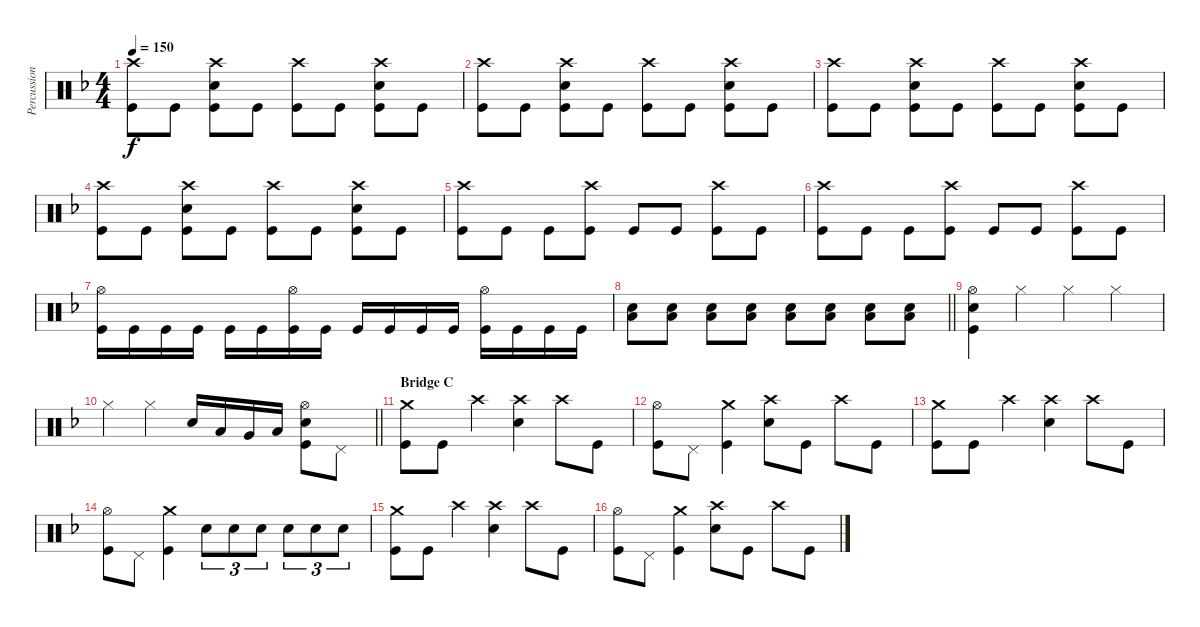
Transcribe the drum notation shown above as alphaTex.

\track ("Percussion" "Percussion") {instrument percussion}
\staff {score}
\articulation defaults
\ts (4 4)
\tempo 150
\clef neutral
\ks f
("Crash high (hit)" "Kick (hit)").8{dy f} "Kick (hit)".8 ("Crash high (hit)" "Electric Snare (hit)" "Kick (hit)").8 "Kick (hit)".8 ("Crash high (hit)" "Kick (hit)").8 "Kick (hit)".8 ("Crash high (hit)" "Electric Snare (hit)" "Kick (hit)").8 "Kick (hit)".8 |
("Crash high (hit)" "Kick (hit)").8 "Kick (hit)".8 ("Crash high (hit)" "Electric Snare (hit)" "Kick (hit)").8 "Kick (hit)".8 ("Crash high (hit)" "Kick (hit)").8 "Kick (hit)".8 ("Crash high (hit)" "Electric Snare (hit)" "Kick (hit)").8 "Kick (hit)".8 |
("Crash high (hit)" "Kick (hit)").8 "Kick (hit)".8 ("Crash high (hit)" "Electric Snare (hit)" "Kick (hit)").8 "Kick (hit)".8 ("Crash high (hit)" "Kick (hit)").8 "Kick (hit)".8 ("Crash high (hit)" "Electric Snare (hit)" "Kick (hit)").8 "Kick (hit)".8 |
("Crash high (hit)" "Kick (hit)").8 "Kick (hit)".8 ("Crash high (hit)" "Electric Snare (hit)" "Kick (hit)").8 "Kick (hit)".8 ("Crash high (hit)" "Kick (hit)").8 "Kick (hit)".8 ("Crash high (hit)" "Electric Snare (hit)" "Kick (hit)").8 "Kick (hit)".8 |
("Crash high (hit)" "Kick (hit)").8 "Kick (hit)".8 "Kick (hit)".8 ("Crash high (hit)" "Kick (hit)").8 "Kick (hit)".8 "Kick (hit)".8 ("Crash high (hit)" "Kick (hit)").8 "Kick (hit)".8 |
("Crash high (hit)" "Kick (hit)").8 "Kick (hit)".8 "Kick (hit)".8 ("Crash high (hit)" "Kick (hit)").8 "Kick (hit)".8 "Kick (hit)".8 ("Crash high (hit)" "Kick (hit)").8 "Kick (hit)".8 |
("Hi-Hat (open)" "Kick (hit)").16 "Kick (hit)".16 "Kick (hit)".16 "Kick (hit)".16 "Kick (hit)".16 "Kick (hit)".16 ("Hi-Hat (open)" "Kick (hit)").16 "Kick (hit)".16 "Kick (hit)".16 "Kick (hit)".16 "Kick (hit)".16 "Kick (hit)".16 ("Hi-Hat (open)" "Kick (hit)").16 "Kick (hit)".16 "Kick (hit)".16 "Kick (hit)".16 |
\barLineRight lightlight
("Electric Snare (hit)" "Low Floor Tom (hit)").8 ("Electric Snare (hit)" "Low Floor Tom (hit)").8 ("Electric Snare (hit)" "Low Floor Tom (hit)").8 ("Electric Snare (hit)" "Low Floor Tom (hit)").8 ("Electric Snare (hit)" "Low Floor Tom (hit)").8 ("Electric Snare (hit)" "Low Floor Tom (hit)").8 ("Electric Snare (hit)" "Low Floor Tom (hit)").8 ("Electric Snare (hit)" "Low Floor Tom (hit)").8 |
\section ("" "")
("Hi-Hat (open)" "Electric Snare (hit)" "Kick (hit)").4 "Hi-Hat (closed)".4 "Hi-Hat (closed)".4 "Hi-Hat (closed)".4 |
\barLineRight lightlight "Hi-Hat (closed)".4 "Hi-Hat (closed)".4 "Electric Snare (hit)".16 "Low Tom (hit)".16 "Very Low Tom (hit)".16 "Low Floor Tom (hit)".16
("Hi-Hat (open)" "Electric Snare (hit)" "Kick (hit)").8 "Pedal Hi-Hat (hit)".8 |
\section ("" "Bridge C")
("Crash medium (hit)" "Kick (hit)").8 "Kick (hit)".8 "Crash high (hit)".4 ("Crash high (hit)" "Electric Snare (hit)").4 "Crash high (hit)".8 "Kick (hit)".8 |
("Hi-Hat (open)" "Kick (hit)").8 "Pedal Hi-Hat (hit)".8 ("Crash medium (hit)" "Kick (hit)").4 ("Crash high (hit)" "Electric Snare (hit)").8 "Kick (hit)".8 "Crash high (hit)".8 "Kick (hit)".8 |
("Crash medium (hit)" "Kick (hit)").8 "Kick (hit)".8 "Crash high (hit)".4 ("Crash high (hit)" "Electric Snare (hit)").4 "Crash high (hit)".8 "Kick (hit)".8 |
("Hi-Hat (open)" "Kick (hit)").8 "Pedal Hi-Hat (hit)".8 ("Crash medium (hit)" "Kick (hit)").4 "Electric Snare (hit)".8{tu (3 2)} "Electric Snare (hit)".8{tu (3 2)} "Electric Snare (hit)".8{tu (3 2)} "Electric Snare (hit)".8{tu (3 2)} "Electric Snare (hit)".8{tu (3 2)} "Electric Snare (hit)".8{tu (3 2)} |
("Crash medium (hit)" "Kick (hit)").8 "Kick (hit)".8 "Crash high (hit)".4 ("Crash high (hit)" "Electric Snare (hit)").4 "Crash high (hit)".8 "Kick (hit)".8 |
("Hi-Hat (open)" "Kick (hit)").8 "Pedal Hi-Hat (hit)".8 ("Crash medium (hit)" "Kick (hit)").4 ("Crash high (hit)" "Electric Snare (hit)").8 "Kick (hit)".8 "Crash high (hit)".8 "Kick (hit)".8
